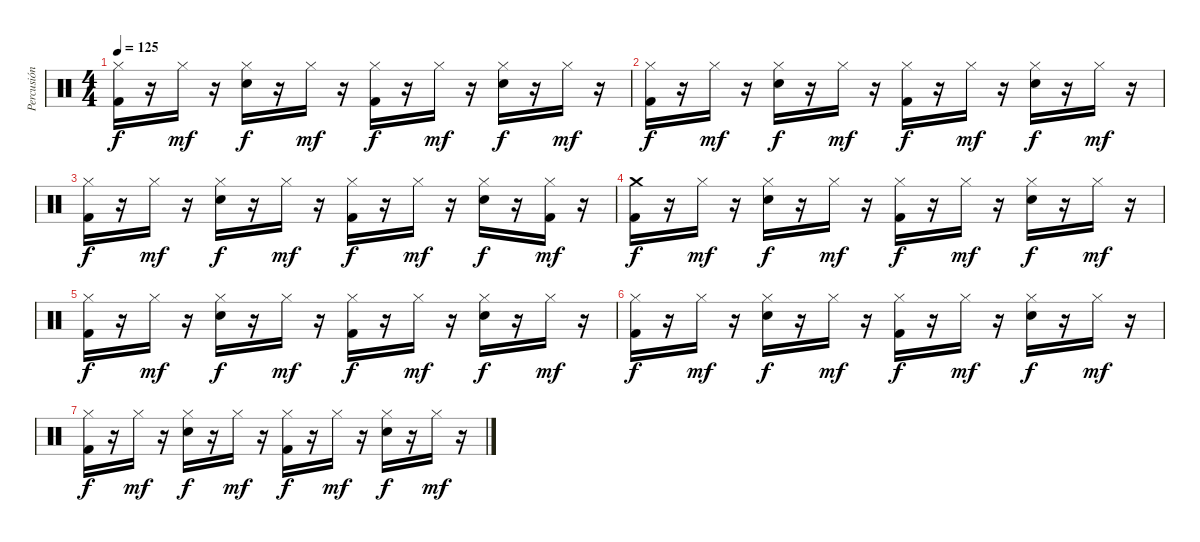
\track ("Percusión" "Percusión") {instrument percussion}
\staff {score}
\articulation defaults
\ts (4 4)
\tempo 125
\clef neutral
\ks c
("Hi-Hat (closed)" "Kick (hit) 2").16{dy f} r.16 "Hi-Hat (closed)".16{dy mf} r.16 ("Hi-Hat (closed)" "Electric Snare (hit)").16{dy f} r.16 "Hi-Hat (closed)".16{dy mf} r.16 ("Hi-Hat (closed)" "Kick (hit) 2").16{dy f} r.16 "Hi-Hat (closed)".16{dy mf} r.16 ("Hi-Hat (closed)" "Electric Snare (hit)").16{dy f} r.16 "Hi-Hat (closed)".16{dy mf} r.16 |
("Hi-Hat (closed)" "Kick (hit) 2").16{dy f} r.16 "Hi-Hat (closed)".16{dy mf} r.16 ("Hi-Hat (closed)" "Electric Snare (hit)").16{dy f} r.16 "Hi-Hat (closed)".16{dy mf} r.16 ("Hi-Hat (closed)" "Kick (hit) 2").16{dy f} r.16 "Hi-Hat (closed)".16{dy mf} r.16 ("Hi-Hat (closed)" "Electric Snare (hit)").16{dy f} r.16 "Hi-Hat (closed)".16{dy mf} r.16 |
("Hi-Hat (closed)" "Kick (hit) 2").16{dy f} r.16 "Hi-Hat (closed)".16{dy mf} r.16 ("Hi-Hat (closed)" "Electric Snare (hit)").16{dy f} r.16 "Hi-Hat (closed)".16{dy mf} r.16 ("Hi-Hat (closed)" "Kick (hit) 2").16{dy f} r.16 "Hi-Hat (closed)".16{dy mf} r.16 ("Hi-Hat (closed)" "Electric Snare (hit)").16{dy f} r.16 ("Hi-Hat (closed)" "Kick (hit) 2").16{dy mf} r.16 |
("Crash medium (hit)" "Kick (hit) 2").16{dy f} r.16 "Hi-Hat (closed)".16{dy mf} r.16 ("Hi-Hat (closed)" "Electric Snare (hit)").16{dy f} r.16 "Hi-Hat (closed)".16{dy mf} r.16 ("Hi-Hat (closed)" "Kick (hit) 2").16{dy f} r.16 "Hi-Hat (closed)".16{dy mf} r.16 ("Hi-Hat (closed)" "Electric Snare (hit)").16{dy f} r.16 "Hi-Hat (closed)".16{dy mf} r.16 |
("Hi-Hat (closed)" "Kick (hit) 2").16{dy f} r.16 "Hi-Hat (closed)".16{dy mf} r.16 ("Hi-Hat (closed)" "Electric Snare (hit)").16{dy f} r.16 "Hi-Hat (closed)".16{dy mf} r.16 ("Hi-Hat (closed)" "Kick (hit) 2").16{dy f} r.16 "Hi-Hat (closed)".16{dy mf} r.16 ("Hi-Hat (closed)" "Electric Snare (hit)").16{dy f} r.16 "Hi-Hat (closed)".16{dy mf} r.16 |
("Hi-Hat (closed)" "Kick (hit) 2").16{dy f} r.16 "Hi-Hat (closed)".16{dy mf} r.16 ("Hi-Hat (closed)" "Electric Snare (hit)").16{dy f} r.16 "Hi-Hat (closed)".16{dy mf} r.16 ("Hi-Hat (closed)" "Kick (hit) 2").16{dy f} r.16 "Hi-Hat (closed)".16{dy mf} r.16 ("Hi-Hat (closed)" "Electric Snare (hit)").16{dy f} r.16 "Hi-Hat (closed)".16{dy mf} r.16 |
("Hi-Hat (closed)" "Kick (hit) 2").16{dy f} r.16 "Hi-Hat (closed)".16{dy mf} r.16 ("Hi-Hat (closed)" "Electric Snare (hit)").16{dy f} r.16 "Hi-Hat (closed)".16{dy mf} r.16 ("Hi-Hat (closed)" "Kick (hit) 2").16{dy f} r.16 "Hi-Hat (closed)".16{dy mf} r.16 ("Hi-Hat (closed)" "Electric Snare (hit)").16{dy f} r.16 "Hi-Hat (closed)".16{dy mf} r.16
